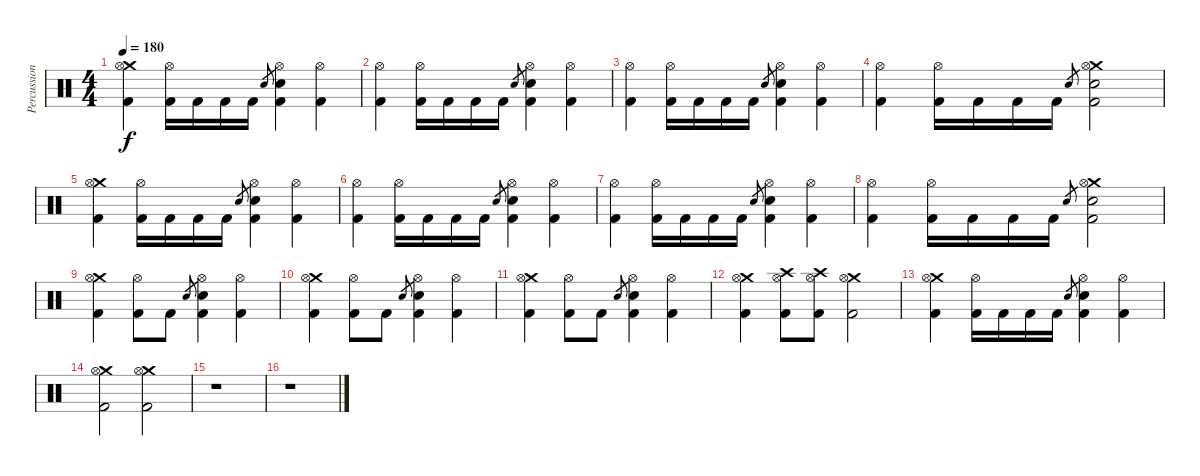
\track ("Percussion" "Percussion") {instrument percussion}
\staff {score}
\articulation defaults
\ts (4 4)
\tempo 180
\clef neutral
\ks c
("Crash medium (hit)" "Hi-Hat (open)" "Kick (hit) 2").4{dy f} ("Hi-Hat (open)" "Kick (hit) 2").16 "Kick (hit) 2".16 "Kick (hit) 2".16 "Kick (hit) 2".16 "Electric Snare (hit)".8{gr} ("Hi-Hat (open)" "Electric Snare (hit)" "Kick (hit) 2").4 ("Hi-Hat (open)" "Kick (hit) 2").4 |
("Hi-Hat (open)" "Kick (hit) 2").4 ("Hi-Hat (open)" "Kick (hit) 2").16 "Kick (hit) 2".16 "Kick (hit) 2".16 "Kick (hit) 2".16 "Electric Snare (hit)".8{gr} ("Hi-Hat (open)" "Electric Snare (hit)" "Kick (hit) 2").4 ("Hi-Hat (open)" "Kick (hit) 2").4 |
("Hi-Hat (open)" "Kick (hit) 2").4 ("Hi-Hat (open)" "Kick (hit) 2").16 "Kick (hit) 2".16 "Kick (hit) 2".16 "Kick (hit) 2".16 "Electric Snare (hit)".8{gr} ("Hi-Hat (open)" "Electric Snare (hit)" "Kick (hit) 2").4 ("Hi-Hat (open)" "Kick (hit) 2").4 |
("Hi-Hat (open)" "Kick (hit) 2").4 ("Hi-Hat (open)" "Kick (hit) 2").16 "Kick (hit) 2".16 "Kick (hit) 2".16 "Kick (hit) 2".16 "Electric Snare (hit)".8{gr} ("Crash medium (hit)" "Hi-Hat (open)" "Electric Snare (hit)" "Kick (hit) 2").2 |
("Crash medium (hit)" "Hi-Hat (open)" "Kick (hit) 2").4 ("Hi-Hat (open)" "Kick (hit) 2").16 "Kick (hit) 2".16 "Kick (hit) 2".16 "Kick (hit) 2".16 "Electric Snare (hit)".8{gr} ("Hi-Hat (open)" "Electric Snare (hit)" "Kick (hit) 2").4 ("Hi-Hat (open)" "Kick (hit) 2").4 |
("Hi-Hat (open)" "Kick (hit) 2").4 ("Hi-Hat (open)" "Kick (hit) 2").16 "Kick (hit) 2".16 "Kick (hit) 2".16 "Kick (hit) 2".16 "Electric Snare (hit)".8{gr} ("Hi-Hat (open)" "Electric Snare (hit)" "Kick (hit) 2").4 ("Hi-Hat (open)" "Kick (hit) 2").4 |
("Hi-Hat (open)" "Kick (hit) 2").4 ("Hi-Hat (open)" "Kick (hit) 2").16 "Kick (hit) 2".16 "Kick (hit) 2".16 "Kick (hit) 2".16 "Electric Snare (hit)".8{gr} ("Hi-Hat (open)" "Electric Snare (hit)" "Kick (hit) 2").4 ("Hi-Hat (open)" "Kick (hit) 2").4 |
("Hi-Hat (open)" "Kick (hit) 2").4 ("Hi-Hat (open)" "Kick (hit) 2").16 "Kick (hit) 2".16 "Kick (hit) 2".16 "Kick (hit) 2".16 "Electric Snare (hit)".8{gr} ("Crash medium (hit)" "Hi-Hat (open)" "Electric Snare (hit)" "Kick (hit) 2").2 |
("Crash medium (hit)" "Hi-Hat (open)" "Kick (hit) 2").4 ("Hi-Hat (open)" "Kick (hit) 2").8 "Kick (hit) 2".8 "Electric Snare (hit)".8{gr} ("Hi-Hat (open)" "Electric Snare (hit)" "Kick (hit) 2").4 ("Hi-Hat (open)" "Kick (hit) 2").4 |
("Crash medium (hit)" "Hi-Hat (open)" "Kick (hit) 2").4 ("Hi-Hat (open)" "Kick (hit) 2").8 "Kick (hit) 2".8 "Electric Snare (hit)".8{gr} ("Hi-Hat (open)" "Electric Snare (hit)" "Kick (hit) 2").4 ("Hi-Hat (open)" "Kick (hit) 2").4 |
("Crash medium (hit)" "Hi-Hat (open)" "Kick (hit) 2").4 ("Hi-Hat (open)" "Kick (hit) 2").8 "Kick (hit) 2".8 "Electric Snare (hit)".8{gr} ("Hi-Hat (open)" "Electric Snare (hit)" "Kick (hit) 2").4 ("Hi-Hat (open)" "Kick (hit) 2").4 |
("Crash medium (hit)" "Hi-Hat (open)" "Kick (hit) 2").4 ("Crash high (hit)" "Hi-Hat (open)" "Kick (hit) 2").8 ("Crash high (hit)" "Hi-Hat (open)" "Kick (hit) 2").8 ("Crash medium (hit)" "Hi-Hat (open)" "Kick (hit) 2").2 |
("Crash medium (hit)" "Hi-Hat (open)" "Kick (hit) 2").4 ("Hi-Hat (open)" "Kick (hit) 2").16 "Kick (hit) 2".16 "Kick (hit) 2".16 "Kick (hit) 2".16 "Electric Snare (hit)".8{gr} ("Hi-Hat (open)" "Electric Snare (hit)" "Kick (hit) 2").4 ("Hi-Hat (open)" "Kick (hit) 2").4 |
("Crash medium (hit)" "Hi-Hat (open)" "Kick (hit) 2").2 ("Crash medium (hit)" "Hi-Hat (open)" "Kick (hit) 2").2 |
r.1 |
r.1
